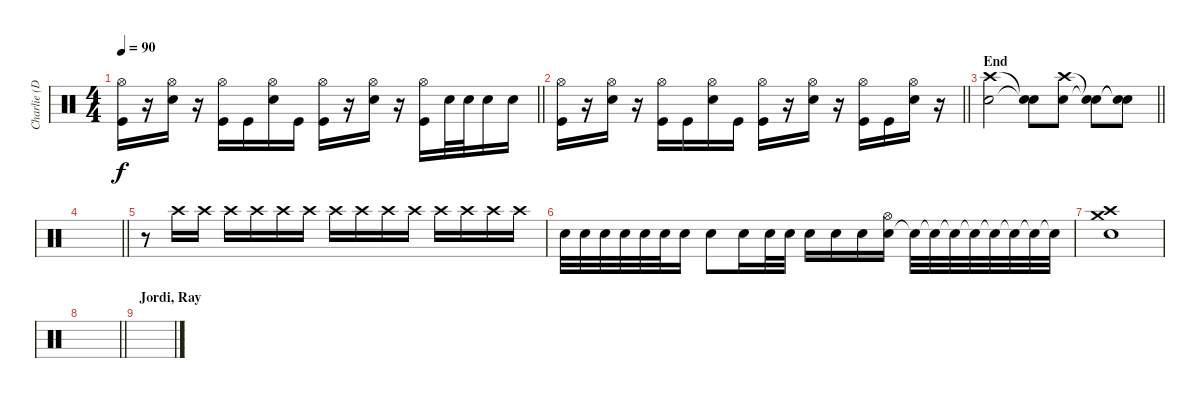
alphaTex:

\track ("Charlie (Drums)" "Charlie (D") {instrument percussion}
\staff {score}
\articulation defaults
\ts (4 4)
\tempo 90
\clef neutral
\barLineRight lightlight
\ks c
("Hi-Hat (open)" "Kick (hit)").16{dy f} r.16 ("Hi-Hat (open)" "Electric Snare (hit)").16 r.16 ("Hi-Hat (open)" "Kick (hit)").16 "Kick (hit)".16 ("Hi-Hat (open)" "Electric Snare (hit)").16 "Kick (hit)".16 ("Hi-Hat (open)" "Kick (hit)").16 r.16 ("Hi-Hat (open)" "Electric Snare (hit)").16 r.16 ("Hi-Hat (open)" "Kick (hit)").16 "Electric Snare (hit)".32 "Electric Snare (hit)".32 "Electric Snare (hit)".16 "Electric Snare (hit)".16 |
\barLineRight lightlight
("Hi-Hat (open)" "Kick (hit)").16 r.16 ("Hi-Hat (open)" "Electric Snare (hit)").16 r.16 ("Hi-Hat (open)" "Kick (hit)").16 "Kick (hit)".16 ("Hi-Hat (open)" "Electric Snare (hit)").16 "Kick (hit)".16 ("Hi-Hat (open)" "Kick (hit)").16 r.16 ("Hi-Hat (open)" "Electric Snare (hit)").16 r.16 ("Hi-Hat (open)" "Kick (hit)").16 "Kick (hit)".16 ("Hi-Hat (open)" "Electric Snare (hit)").16 r.16 |
\section ("" "End")
\barLineRight lightlight
("Crash high (hit)" "Electric Snare (hit)").2 ("Snare (hit)"{t} "Snare (hit)"{t}).8 ("Crash high (hit)" "Electric Snare (hit)").8 ("Snare (hit)"{t} "Snare (hit)"{t}).8 ("Snare (hit)"{t} "Snare (hit)"{t}).8 |
\barLineRight lightlight
|
r.8 "Crash high (hit)".16 "Crash high (hit)".16 "Crash high (hit)".16 "Crash high (hit)".16 "Crash high (hit)".16 "Crash high (hit)".16 "Crash high (hit)".16 "Crash high (hit)".16 "Crash high (hit)".16 "Crash high (hit)".16 "Crash high (hit)".16 "Crash high (hit)".16 "Crash high (hit)".16 "Crash high (hit)".16 |
"Electric Snare (hit)".32 "Electric Snare (hit)".32 "Electric Snare (hit)".32 "Electric Snare (hit)".32 "Electric Snare (hit)".32 "Electric Snare (hit)".32 "Electric Snare (hit)".16 "Electric Snare (hit)".8 "Electric Snare (hit)".16 "Electric Snare (hit)".32 "Electric Snare (hit)".32 "Electric Snare (hit)".16 "Electric Snare (hit)".16 "Electric Snare (hit)".16 ("Electric Snare (hit)" "Hi-Hat (open)").16 "Snare (hit)"{t}.32 "Snare (hit)"{t}.32 "Snare (hit)"{t}.32 "Snare (hit)"{t}.32 "Snare (hit)"{t}.32 "Snare (hit)"{t}.32 "Snare (hit)"{t}.32 "Snare (hit)"{t}.32 |
("Crash high (hit)" "Electric Snare (hit)" "Crash medium (hit)").1 |
\barLineRight lightlight
|
\section ("" "Jordi, Ray")
